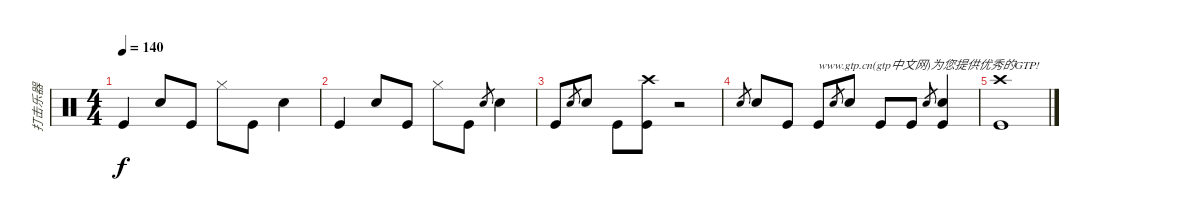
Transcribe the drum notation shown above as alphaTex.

\track ("打击乐器" "打击乐器") {instrument percussion}
\staff {score}
\articulation defaults
\ts (4 4)
\tempo 140
\clef neutral
\ks c "Kick (hit)".4{dy f} "Snare (hit) 2".8 "Kick (hit)".8 "Hi-Hat (closed)".8 "Kick (hit)".8 "Snare (hit) 2".4
|
"Kick (hit)".4 "Snare (hit) 2".8 "Kick (hit)".8 "Hi-Hat (closed)".8 "Kick (hit)".8 "Snare (hit) 2".8{gr} "Snare (hit) 2".4 |
"Kick (hit)".8 "Snare (hit) 2".8{gr} "Snare (hit) 2".8 "Kick (hit)".8 ("Crash high (hit)" "Kick (hit)").8 r.2 |
"Snare (hit) 2".8{gr} "Snare (hit) 2".8 "Kick (hit)".8 "Kick (hit)".8{txt "www.gtp.cn(gtp中文网)为您提供优秀的GTP!"} "Snare (hit) 2".8{gr} "Snare (hit) 2".8 "Kick (hit)".8 "Kick (hit)".8 "Snare (hit) 2".8{gr} ("Snare (hit) 2" "Kick (hit)").4 |
("Crash high (hit)" "Kick (hit)").1
